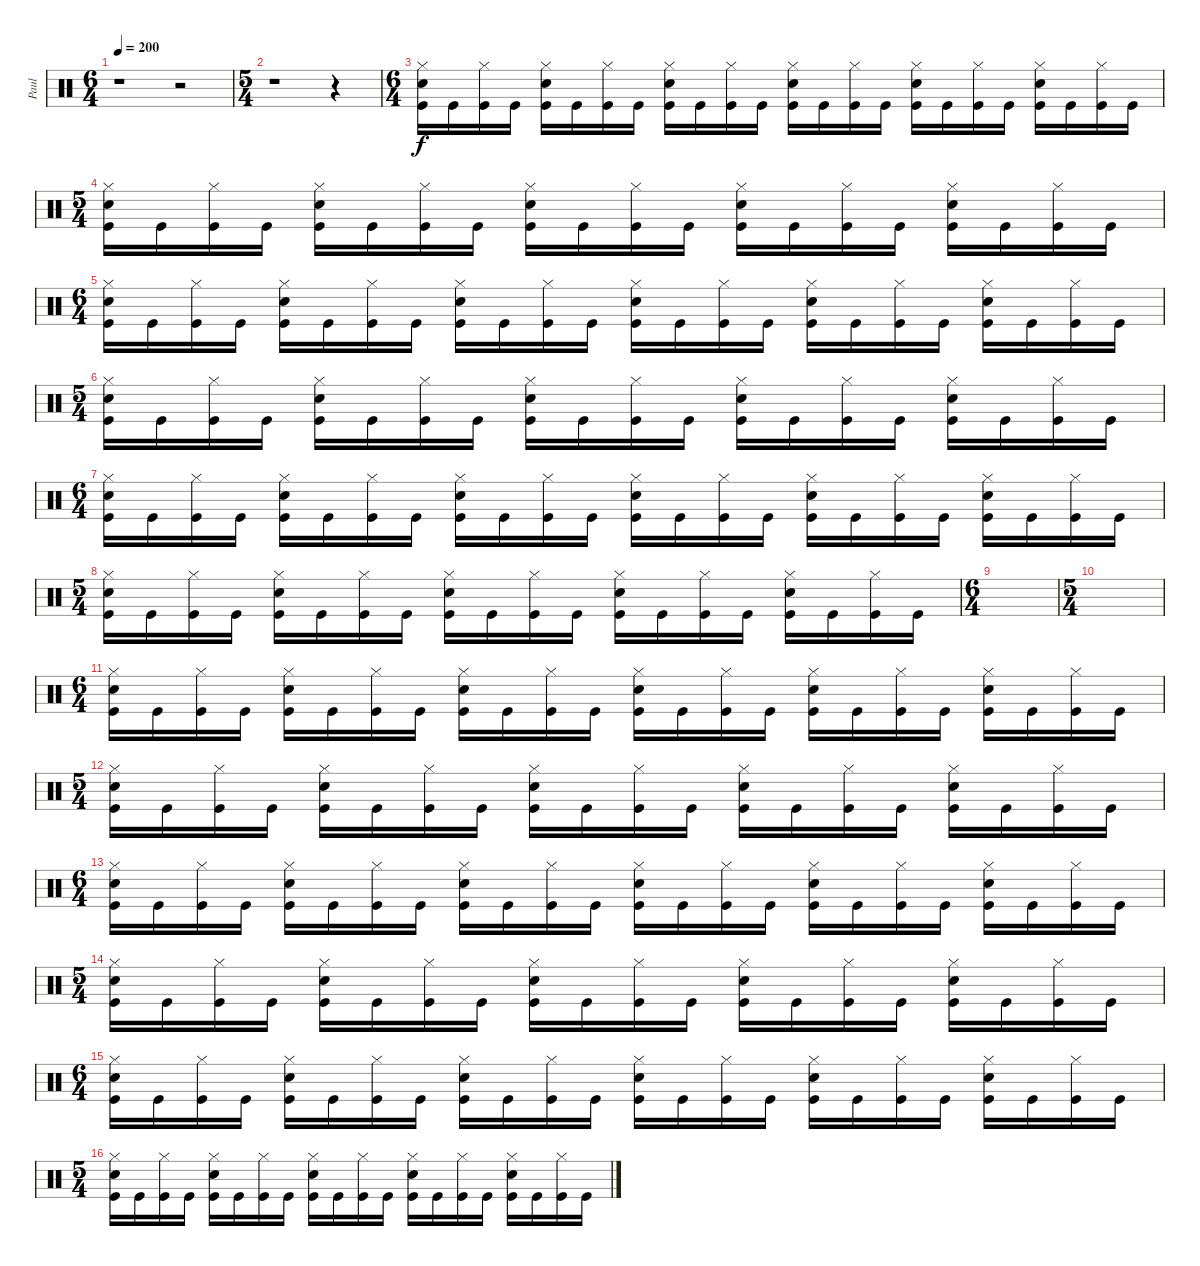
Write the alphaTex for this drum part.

\track ("Paul" "Paul") {instrument percussion}
\staff {score}
\articulation defaults
\ts (6 4)
\tempo 200
\clef neutral
\ks c
r.1{dy f} r.2 |
\ts (5 4)
r.1 r.4 |
\ts (6 4)
("Kick (hit)" "Hi-Hat (closed)" "Snare (hit) 2").16 "Kick (hit)".16 ("Kick (hit)" "Hi-Hat (closed)").16 "Kick (hit)".16 ("Kick (hit)" "Hi-Hat (closed)" "Snare (hit) 2").16 "Kick (hit)".16 ("Kick (hit)" "Hi-Hat (closed)").16 "Kick (hit)".16 ("Kick (hit)" "Hi-Hat (closed)" "Snare (hit) 2").16 "Kick (hit)".16 ("Kick (hit)" "Hi-Hat (closed)").16 "Kick (hit)".16 ("Kick (hit)" "Hi-Hat (closed)" "Snare (hit) 2").16 "Kick (hit)".16 ("Kick (hit)" "Hi-Hat (closed)").16 "Kick (hit)".16 ("Kick (hit)" "Hi-Hat (closed)" "Snare (hit) 2").16 "Kick (hit)".16 ("Kick (hit)" "Hi-Hat (closed)").16 "Kick (hit)".16 ("Kick (hit)" "Hi-Hat (closed)" "Snare (hit) 2").16 "Kick (hit)".16 ("Kick (hit)" "Hi-Hat (closed)").16 "Kick (hit)".16 |
\ts (5 4)
("Kick (hit)" "Hi-Hat (closed)" "Snare (hit) 2").16 "Kick (hit)".16 ("Kick (hit)" "Hi-Hat (closed)").16 "Kick (hit)".16 ("Kick (hit)" "Hi-Hat (closed)" "Snare (hit) 2").16 "Kick (hit)".16 ("Kick (hit)" "Hi-Hat (closed)").16 "Kick (hit)".16 ("Kick (hit)" "Hi-Hat (closed)" "Snare (hit) 2").16 "Kick (hit)".16 ("Kick (hit)" "Hi-Hat (closed)").16 "Kick (hit)".16 ("Kick (hit)" "Hi-Hat (closed)" "Snare (hit) 2").16 "Kick (hit)".16 ("Kick (hit)" "Hi-Hat (closed)").16 "Kick (hit)".16 ("Kick (hit)" "Hi-Hat (closed)" "Snare (hit) 2").16 "Kick (hit)".16 ("Kick (hit)" "Hi-Hat (closed)").16 "Kick (hit)".16 |
\ts (6 4)
("Kick (hit)" "Hi-Hat (closed)" "Snare (hit) 2").16 "Kick (hit)".16 ("Kick (hit)" "Hi-Hat (closed)").16 "Kick (hit)".16 ("Kick (hit)" "Hi-Hat (closed)" "Snare (hit) 2").16 "Kick (hit)".16 ("Kick (hit)" "Hi-Hat (closed)").16 "Kick (hit)".16 ("Kick (hit)" "Hi-Hat (closed)" "Snare (hit) 2").16 "Kick (hit)".16 ("Kick (hit)" "Hi-Hat (closed)").16 "Kick (hit)".16 ("Kick (hit)" "Hi-Hat (closed)" "Snare (hit) 2").16 "Kick (hit)".16 ("Kick (hit)" "Hi-Hat (closed)").16 "Kick (hit)".16 ("Kick (hit)" "Hi-Hat (closed)" "Snare (hit) 2").16 "Kick (hit)".16 ("Kick (hit)" "Hi-Hat (closed)").16 "Kick (hit)".16 ("Kick (hit)" "Hi-Hat (closed)" "Snare (hit) 2").16 "Kick (hit)".16 ("Kick (hit)" "Hi-Hat (closed)").16 "Kick (hit)".16 |
\ts (5 4)
("Kick (hit)" "Hi-Hat (closed)" "Snare (hit) 2").16 "Kick (hit)".16 ("Kick (hit)" "Hi-Hat (closed)").16 "Kick (hit)".16 ("Kick (hit)" "Hi-Hat (closed)" "Snare (hit) 2").16 "Kick (hit)".16 ("Kick (hit)" "Hi-Hat (closed)").16 "Kick (hit)".16 ("Kick (hit)" "Hi-Hat (closed)" "Snare (hit) 2").16 "Kick (hit)".16 ("Kick (hit)" "Hi-Hat (closed)").16 "Kick (hit)".16 ("Kick (hit)" "Hi-Hat (closed)" "Snare (hit) 2").16 "Kick (hit)".16 ("Kick (hit)" "Hi-Hat (closed)").16 "Kick (hit)".16 ("Kick (hit)" "Hi-Hat (closed)" "Snare (hit) 2").16 "Kick (hit)".16 ("Kick (hit)" "Hi-Hat (closed)").16 "Kick (hit)".16 |
\ts (6 4)
("Kick (hit)" "Hi-Hat (closed)" "Snare (hit) 2").16 "Kick (hit)".16 ("Kick (hit)" "Hi-Hat (closed)").16 "Kick (hit)".16 ("Kick (hit)" "Hi-Hat (closed)" "Snare (hit) 2").16 "Kick (hit)".16 ("Kick (hit)" "Hi-Hat (closed)").16 "Kick (hit)".16 ("Kick (hit)" "Hi-Hat (closed)" "Snare (hit) 2").16 "Kick (hit)".16 ("Kick (hit)" "Hi-Hat (closed)").16 "Kick (hit)".16 ("Kick (hit)" "Hi-Hat (closed)" "Snare (hit) 2").16 "Kick (hit)".16 ("Kick (hit)" "Hi-Hat (closed)").16 "Kick (hit)".16 ("Kick (hit)" "Hi-Hat (closed)" "Snare (hit) 2").16 "Kick (hit)".16 ("Kick (hit)" "Hi-Hat (closed)").16 "Kick (hit)".16 ("Kick (hit)" "Hi-Hat (closed)" "Snare (hit) 2").16 "Kick (hit)".16 ("Kick (hit)" "Hi-Hat (closed)").16 "Kick (hit)".16 |
\ts (5 4)
("Kick (hit)" "Hi-Hat (closed)" "Snare (hit) 2").16 "Kick (hit)".16 ("Kick (hit)" "Hi-Hat (closed)").16 "Kick (hit)".16 ("Kick (hit)" "Hi-Hat (closed)" "Snare (hit) 2").16 "Kick (hit)".16 ("Kick (hit)" "Hi-Hat (closed)").16 "Kick (hit)".16 ("Kick (hit)" "Hi-Hat (closed)" "Snare (hit) 2").16 "Kick (hit)".16 ("Kick (hit)" "Hi-Hat (closed)").16 "Kick (hit)".16 ("Kick (hit)" "Hi-Hat (closed)" "Snare (hit) 2").16 "Kick (hit)".16 ("Kick (hit)" "Hi-Hat (closed)").16 "Kick (hit)".16 ("Kick (hit)" "Hi-Hat (closed)" "Snare (hit) 2").16 "Kick (hit)".16 ("Kick (hit)" "Hi-Hat (closed)").16 "Kick (hit)".16 |
\ts (6 4)
|
\ts (5 4)
|
\ts (6 4)
("Kick (hit)" "Hi-Hat (closed)" "Snare (hit) 2").16 "Kick (hit)".16 ("Kick (hit)" "Hi-Hat (closed)").16 "Kick (hit)".16 ("Kick (hit)" "Hi-Hat (closed)" "Snare (hit) 2").16 "Kick (hit)".16 ("Kick (hit)" "Hi-Hat (closed)").16 "Kick (hit)".16 ("Kick (hit)" "Hi-Hat (closed)" "Snare (hit) 2").16 "Kick (hit)".16 ("Kick (hit)" "Hi-Hat (closed)").16 "Kick (hit)".16 ("Kick (hit)" "Hi-Hat (closed)" "Snare (hit) 2").16 "Kick (hit)".16 ("Kick (hit)" "Hi-Hat (closed)").16 "Kick (hit)".16 ("Kick (hit)" "Hi-Hat (closed)" "Snare (hit) 2").16 "Kick (hit)".16 ("Kick (hit)" "Hi-Hat (closed)").16 "Kick (hit)".16 ("Kick (hit)" "Hi-Hat (closed)" "Snare (hit) 2").16 "Kick (hit)".16 ("Kick (hit)" "Hi-Hat (closed)").16 "Kick (hit)".16 |
\ts (5 4)
("Kick (hit)" "Hi-Hat (closed)" "Snare (hit) 2").16 "Kick (hit)".16 ("Kick (hit)" "Hi-Hat (closed)").16 "Kick (hit)".16 ("Kick (hit)" "Hi-Hat (closed)" "Snare (hit) 2").16 "Kick (hit)".16 ("Kick (hit)" "Hi-Hat (closed)").16 "Kick (hit)".16 ("Kick (hit)" "Hi-Hat (closed)" "Snare (hit) 2").16 "Kick (hit)".16 ("Kick (hit)" "Hi-Hat (closed)").16 "Kick (hit)".16 ("Kick (hit)" "Hi-Hat (closed)" "Snare (hit) 2").16 "Kick (hit)".16 ("Kick (hit)" "Hi-Hat (closed)").16 "Kick (hit)".16 ("Kick (hit)" "Hi-Hat (closed)" "Snare (hit) 2").16 "Kick (hit)".16 ("Kick (hit)" "Hi-Hat (closed)").16 "Kick (hit)".16 |
\ts (6 4)
("Kick (hit)" "Hi-Hat (closed)" "Snare (hit) 2").16 "Kick (hit)".16 ("Kick (hit)" "Hi-Hat (closed)").16 "Kick (hit)".16 ("Kick (hit)" "Hi-Hat (closed)" "Snare (hit) 2").16 "Kick (hit)".16 ("Kick (hit)" "Hi-Hat (closed)").16 "Kick (hit)".16 ("Kick (hit)" "Hi-Hat (closed)" "Snare (hit) 2").16 "Kick (hit)".16 ("Kick (hit)" "Hi-Hat (closed)").16 "Kick (hit)".16 ("Kick (hit)" "Hi-Hat (closed)" "Snare (hit) 2").16 "Kick (hit)".16 ("Kick (hit)" "Hi-Hat (closed)").16 "Kick (hit)".16 ("Kick (hit)" "Hi-Hat (closed)" "Snare (hit) 2").16 "Kick (hit)".16 ("Kick (hit)" "Hi-Hat (closed)").16 "Kick (hit)".16 ("Kick (hit)" "Hi-Hat (closed)" "Snare (hit) 2").16 "Kick (hit)".16 ("Kick (hit)" "Hi-Hat (closed)").16 "Kick (hit)".16 |
\ts (5 4)
("Kick (hit)" "Hi-Hat (closed)" "Snare (hit) 2").16 "Kick (hit)".16 ("Kick (hit)" "Hi-Hat (closed)").16 "Kick (hit)".16 ("Kick (hit)" "Hi-Hat (closed)" "Snare (hit) 2").16 "Kick (hit)".16 ("Kick (hit)" "Hi-Hat (closed)").16 "Kick (hit)".16 ("Kick (hit)" "Hi-Hat (closed)" "Snare (hit) 2").16 "Kick (hit)".16 ("Kick (hit)" "Hi-Hat (closed)").16 "Kick (hit)".16 ("Kick (hit)" "Hi-Hat (closed)" "Snare (hit) 2").16 "Kick (hit)".16 ("Kick (hit)" "Hi-Hat (closed)").16 "Kick (hit)".16 ("Kick (hit)" "Hi-Hat (closed)" "Snare (hit) 2").16 "Kick (hit)".16 ("Kick (hit)" "Hi-Hat (closed)").16 "Kick (hit)".16 |
\ts (6 4)
("Kick (hit)" "Hi-Hat (closed)" "Snare (hit) 2").16 "Kick (hit)".16 ("Kick (hit)" "Hi-Hat (closed)").16 "Kick (hit)".16 ("Kick (hit)" "Hi-Hat (closed)" "Snare (hit) 2").16 "Kick (hit)".16 ("Kick (hit)" "Hi-Hat (closed)").16 "Kick (hit)".16 ("Kick (hit)" "Hi-Hat (closed)" "Snare (hit) 2").16 "Kick (hit)".16 ("Kick (hit)" "Hi-Hat (closed)").16 "Kick (hit)".16 ("Kick (hit)" "Hi-Hat (closed)" "Snare (hit) 2").16 "Kick (hit)".16 ("Kick (hit)" "Hi-Hat (closed)").16 "Kick (hit)".16 ("Kick (hit)" "Hi-Hat (closed)" "Snare (hit) 2").16 "Kick (hit)".16 ("Kick (hit)" "Hi-Hat (closed)").16 "Kick (hit)".16 ("Kick (hit)" "Hi-Hat (closed)" "Snare (hit) 2").16 "Kick (hit)".16 ("Kick (hit)" "Hi-Hat (closed)").16 "Kick (hit)".16 |
\ts (5 4)
("Kick (hit)" "Hi-Hat (closed)" "Snare (hit) 2").16 "Kick (hit)".16 ("Kick (hit)" "Hi-Hat (closed)").16 "Kick (hit)".16 ("Kick (hit)" "Hi-Hat (closed)" "Snare (hit) 2").16 "Kick (hit)".16 ("Kick (hit)" "Hi-Hat (closed)").16 "Kick (hit)".16 ("Kick (hit)" "Hi-Hat (closed)" "Snare (hit) 2").16 "Kick (hit)".16 ("Kick (hit)" "Hi-Hat (closed)").16 "Kick (hit)".16 ("Kick (hit)" "Hi-Hat (closed)" "Snare (hit) 2").16 "Kick (hit)".16 ("Kick (hit)" "Hi-Hat (closed)").16 "Kick (hit)".16 ("Kick (hit)" "Hi-Hat (closed)" "Snare (hit) 2").16 "Kick (hit)".16 ("Kick (hit)" "Hi-Hat (closed)").16 "Kick (hit)".16
